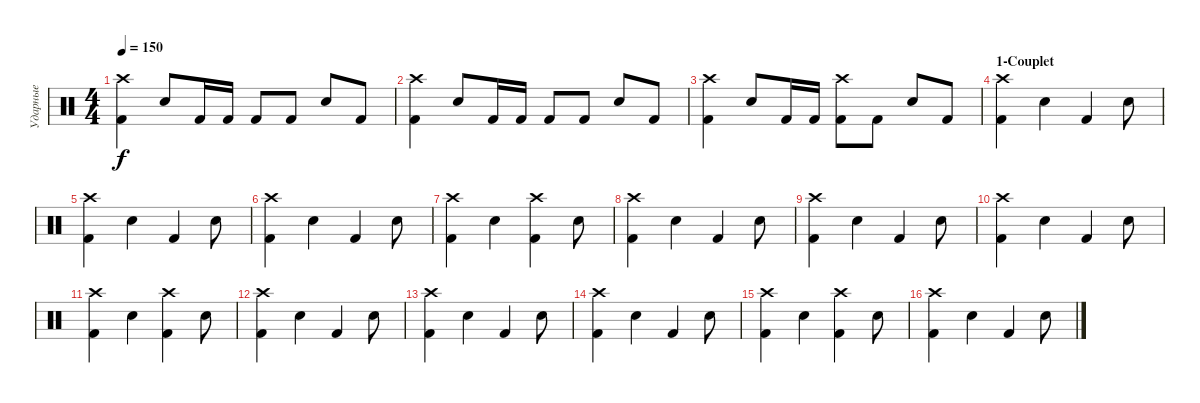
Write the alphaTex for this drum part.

\track ("Ударные" "Ударные") {instrument percussion}
\staff {score}
\articulation defaults
\ts (4 4)
\tempo 150
\clef neutral
\ks c
("Crash high (hit)" "Kick (hit) 2").4{dy f} "Electric Snare (hit)".8 "Kick (hit) 2".16 "Kick (hit) 2".16 "Kick (hit) 2".8 "Kick (hit) 2".8 "Electric Snare (hit)".8 "Kick (hit) 2".8 |
("Crash high (hit)" "Kick (hit) 2").4 "Electric Snare (hit)".8 "Kick (hit) 2".16 "Kick (hit) 2".16 "Kick (hit) 2".8 "Kick (hit) 2".8 "Electric Snare (hit)".8 "Kick (hit) 2".8 |
("Crash high (hit)" "Kick (hit) 2").4 "Electric Snare (hit)".8 "Kick (hit) 2".16 "Kick (hit) 2".16 ("Crash high (hit)" "Kick (hit) 2").8 "Kick (hit) 2".8 "Electric Snare (hit)".8 "Kick (hit) 2".8 |
\section ("" "1-Couplet")
("Crash high (hit)" "Kick (hit) 2").4 "Electric Snare (hit)".4 "Kick (hit) 2".4 "Electric Snare (hit)".8 |
("Crash high (hit)" "Kick (hit) 2").4 "Electric Snare (hit)".4 "Kick (hit) 2".4 "Electric Snare (hit)".8 |
("Crash high (hit)" "Kick (hit) 2").4 "Electric Snare (hit)".4 "Kick (hit) 2".4 "Electric Snare (hit)".8 |
("Crash high (hit)" "Kick (hit) 2").4 "Electric Snare (hit)".4 ("Crash high (hit)" "Kick (hit) 2").4 "Electric Snare (hit)".8 |
("Crash high (hit)" "Kick (hit) 2").4 "Electric Snare (hit)".4 "Kick (hit) 2".4 "Electric Snare (hit)".8 |
("Crash high (hit)" "Kick (hit) 2").4 "Electric Snare (hit)".4 "Kick (hit) 2".4 "Electric Snare (hit)".8 |
("Crash high (hit)" "Kick (hit) 2").4 "Electric Snare (hit)".4 "Kick (hit) 2".4 "Electric Snare (hit)".8 |
("Crash high (hit)" "Kick (hit) 2").4 "Electric Snare (hit)".4 ("Crash high (hit)" "Kick (hit) 2").4 "Electric Snare (hit)".8 |
("Crash high (hit)" "Kick (hit) 2").4 "Electric Snare (hit)".4 "Kick (hit) 2".4 "Electric Snare (hit)".8 |
("Crash high (hit)" "Kick (hit) 2").4 "Electric Snare (hit)".4 "Kick (hit) 2".4 "Electric Snare (hit)".8 |
("Crash high (hit)" "Kick (hit) 2").4 "Electric Snare (hit)".4 "Kick (hit) 2".4 "Electric Snare (hit)".8 |
("Crash high (hit)" "Kick (hit) 2").4 "Electric Snare (hit)".4 ("Crash high (hit)" "Kick (hit) 2").4 "Electric Snare (hit)".8 |
("Crash high (hit)" "Kick (hit) 2").4 "Electric Snare (hit)".4 "Kick (hit) 2".4 "Electric Snare (hit)".8
